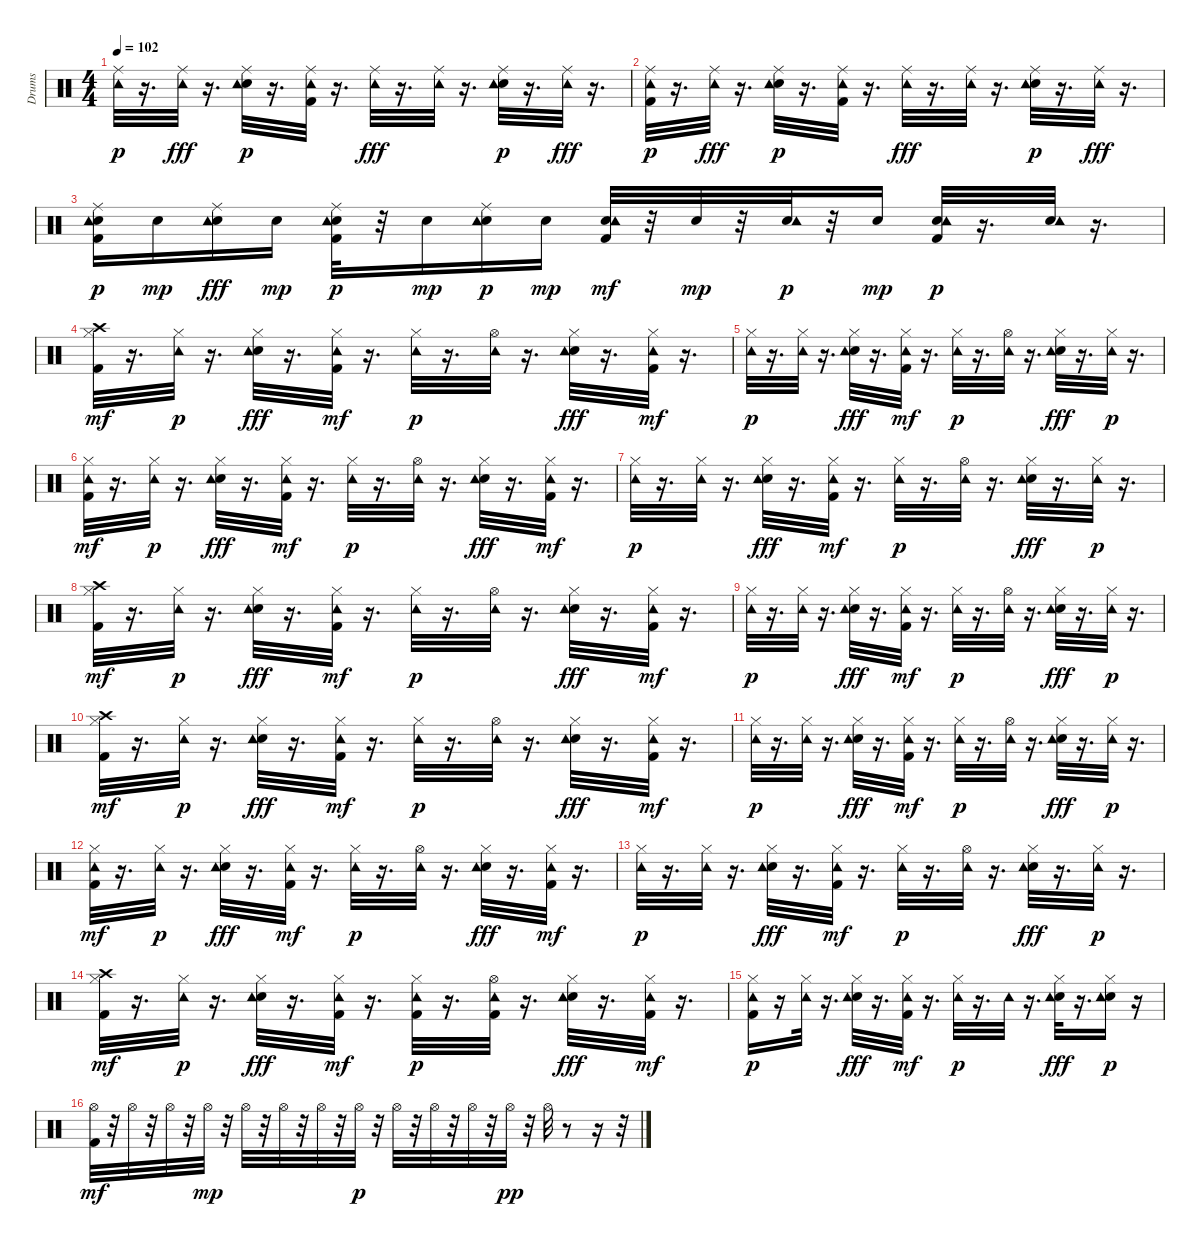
\track ("Drums" "Drums") {instrument percussion}
\staff {score}
\articulation defaults
\ts (4 4)
\tempo 102
\clef neutral
\ks c
("Ride (middle)" "Tambourine (hit)").32{dy p} r.16{d} ("Tambourine (hit)" "Ride (middle)").32{dy fff} r.16{d} ("Ride (middle)" "Electric Snare (hit)" "Tambourine (hit)").32{dy p} r.16{d} ("Kick (hit) 2" "Ride (middle)" "Tambourine (hit)").32 r.16{d} ("Tambourine (hit)" "Ride (middle)").32{dy fff} r.16{d} ("Tambourine (hit)" "Ride (middle)").32 r.16{d} ("Ride (middle)" "Electric Snare (hit)" "Tambourine (hit)").32{dy p} r.16{d} ("Tambourine (hit)" "Ride (middle)").32{dy fff} r.16{d} |
("Kick (hit) 2" "Ride (middle)" "Tambourine (hit)").32{dy p} r.16{d} ("Tambourine (hit)" "Ride (middle)").32{dy fff} r.16{d} ("Ride (middle)" "Electric Snare (hit)" "Tambourine (hit)").32{dy p} r.16{d} ("Kick (hit) 2" "Ride (middle)" "Tambourine (hit)").32 r.16{d} ("Tambourine (hit)" "Ride (middle)").32{dy fff} r.16{d} ("Tambourine (hit)" "Ride (middle)").32 r.16{d} ("Ride (middle)" "Electric Snare (hit)" "Tambourine (hit)").32{dy p} r.16{d} ("Tambourine (hit)" "Ride (middle)").32{dy fff} r.16{d} |
("Electric Snare (hit)" "Kick (hit) 2" "Ride (middle)" "Tambourine (hit)").16{dy p} "Electric Snare (hit)".16{dy mp} ("Electric Snare (hit)" "Tambourine (hit)" "Ride (middle)").16{dy fff} "Electric Snare (hit)".16{dy mp} ("Kick (hit) 2" "Ride (middle)" "Electric Snare (hit)" "Tambourine (hit)").32{dy p} r.32 "Electric Snare (hit)".16{dy mp} ("Electric Snare (hit)" "Ride (middle)" "Tambourine (hit)").16{dy p} "Electric Snare (hit)".16{dy mp} ("Electric Snare (hit)" "Tambourine (hit)" "Kick (hit) 2").32{dy mf} r.32 "Electric Snare (hit)".32{dy mp} r.32 ("Electric Snare (hit)" "Tambourine (hit)").32{dy p} r.32 "Electric Snare (hit)".16{dy mp} ("Electric Snare (hit)" "Kick (hit) 2" "Tambourine (hit)").32{dy p} r.16{d} ("Electric Snare (hit)" "Tambourine (hit)").32 r.16{d} |
("Hi-Hat (closed)" "Crash high (hit)" "Kick (hit) 2").32{dy mf} r.16{d} ("Hi-Hat (closed)" "Tambourine (hit)").32{dy p} r.16{d} ("Electric Snare (hit)" "Tambourine (hit)" "Hi-Hat (closed)").32{dy fff} r.16{d} ("Hi-Hat (closed)" "Tambourine (hit)" "Kick (hit) 2").32{dy mf} r.16{d} ("Hi-Hat (closed)" "Tambourine (hit)").32{dy p} r.16{d} ("Hi-Hat (open)" "Tambourine (hit)").32 r.16{d} ("Electric Snare (hit)" "Tambourine (hit)" "Hi-Hat (closed)").32{dy fff} r.16{d} ("Hi-Hat (closed)" "Tambourine (hit)" "Kick (hit) 2").32{dy mf} r.16{d} |
("Hi-Hat (closed)" "Tambourine (hit)").32{dy p} r.16{d} ("Hi-Hat (closed)" "Tambourine (hit)").32 r.16{d} ("Electric Snare (hit)" "Tambourine (hit)" "Hi-Hat (closed)").32{dy fff} r.16{d} ("Hi-Hat (closed)" "Tambourine (hit)" "Kick (hit) 2").32{dy mf} r.16{d} ("Hi-Hat (closed)" "Tambourine (hit)").32{dy p} r.16{d} ("Hi-Hat (open)" "Tambourine (hit)").32 r.16{d} ("Electric Snare (hit)" "Tambourine (hit)" "Hi-Hat (closed)").32{dy fff} r.16{d} ("Hi-Hat (closed)" "Tambourine (hit)").32{dy p} r.16{d} |
("Hi-Hat (closed)" "Tambourine (hit)" "Kick (hit) 2").32{dy mf} r.16{d} ("Hi-Hat (closed)" "Tambourine (hit)").32{dy p} r.16{d} ("Electric Snare (hit)" "Tambourine (hit)" "Hi-Hat (closed)").32{dy fff} r.16{d} ("Hi-Hat (closed)" "Tambourine (hit)" "Kick (hit) 2").32{dy mf} r.16{d} ("Hi-Hat (closed)" "Tambourine (hit)").32{dy p} r.16{d} ("Hi-Hat (open)" "Tambourine (hit)").32 r.16{d} ("Electric Snare (hit)" "Tambourine (hit)" "Hi-Hat (closed)").32{dy fff} r.16{d} ("Hi-Hat (closed)" "Tambourine (hit)" "Kick (hit) 2").32{dy mf} r.16{d} |
("Hi-Hat (closed)" "Tambourine (hit)").32{dy p} r.16{d} ("Hi-Hat (closed)" "Tambourine (hit)").32 r.16{d} ("Electric Snare (hit)" "Tambourine (hit)" "Hi-Hat (closed)").32{dy fff} r.16{d} ("Hi-Hat (closed)" "Tambourine (hit)" "Kick (hit) 2").32{dy mf} r.16{d} ("Hi-Hat (closed)" "Tambourine (hit)").32{dy p} r.16{d} ("Hi-Hat (open)" "Tambourine (hit)").32 r.16{d} ("Electric Snare (hit)" "Tambourine (hit)" "Hi-Hat (closed)").32{dy fff} r.16{d} ("Hi-Hat (closed)" "Tambourine (hit)").32{dy p} r.16{d} |
("Hi-Hat (closed)" "Crash high (hit)" "Kick (hit) 2").32{dy mf} r.16{d} ("Hi-Hat (closed)" "Tambourine (hit)").32{dy p} r.16{d} ("Electric Snare (hit)" "Tambourine (hit)" "Hi-Hat (closed)").32{dy fff} r.16{d} ("Hi-Hat (closed)" "Tambourine (hit)" "Kick (hit) 2").32{dy mf} r.16{d} ("Hi-Hat (closed)" "Tambourine (hit)").32{dy p} r.16{d} ("Hi-Hat (open)" "Tambourine (hit)").32 r.16{d} ("Electric Snare (hit)" "Tambourine (hit)" "Hi-Hat (closed)").32{dy fff} r.16{d} ("Hi-Hat (closed)" "Tambourine (hit)" "Kick (hit) 2").32{dy mf} r.16{d} |
("Hi-Hat (closed)" "Tambourine (hit)").32{dy p} r.16{d} ("Hi-Hat (closed)" "Tambourine (hit)").32 r.16{d} ("Electric Snare (hit)" "Tambourine (hit)" "Hi-Hat (closed)").32{dy fff} r.16{d} ("Hi-Hat (closed)" "Tambourine (hit)" "Kick (hit) 2").32{dy mf} r.16{d} ("Hi-Hat (closed)" "Tambourine (hit)").32{dy p} r.16{d} ("Hi-Hat (open)" "Tambourine (hit)").32 r.16{d} ("Electric Snare (hit)" "Tambourine (hit)" "Hi-Hat (closed)").32{dy fff} r.16{d} ("Hi-Hat (closed)" "Tambourine (hit)").32{dy p} r.16{d} |
("Hi-Hat (closed)" "Crash high (hit)" "Kick (hit) 2").32{dy mf} r.16{d} ("Hi-Hat (closed)" "Tambourine (hit)").32{dy p} r.16{d} ("Electric Snare (hit)" "Tambourine (hit)" "Hi-Hat (closed)").32{dy fff} r.16{d} ("Hi-Hat (closed)" "Tambourine (hit)" "Kick (hit) 2").32{dy mf} r.16{d} ("Hi-Hat (closed)" "Tambourine (hit)").32{dy p} r.16{d} ("Hi-Hat (open)" "Tambourine (hit)").32 r.16{d} ("Electric Snare (hit)" "Tambourine (hit)" "Hi-Hat (closed)").32{dy fff} r.16{d} ("Hi-Hat (closed)" "Tambourine (hit)" "Kick (hit) 2").32{dy mf} r.16{d} |
("Hi-Hat (closed)" "Tambourine (hit)").32{dy p} r.16{d} ("Hi-Hat (closed)" "Tambourine (hit)").32 r.16{d} ("Electric Snare (hit)" "Tambourine (hit)" "Hi-Hat (closed)").32{dy fff} r.16{d} ("Hi-Hat (closed)" "Tambourine (hit)" "Kick (hit) 2").32{dy mf} r.16{d} ("Hi-Hat (closed)" "Tambourine (hit)").32{dy p} r.16{d} ("Hi-Hat (open)" "Tambourine (hit)").32 r.16{d} ("Electric Snare (hit)" "Tambourine (hit)" "Hi-Hat (closed)").32{dy fff} r.16{d} ("Hi-Hat (closed)" "Tambourine (hit)").32{dy p} r.16{d} |
("Hi-Hat (closed)" "Tambourine (hit)" "Kick (hit) 2").32{dy mf} r.16{d} ("Hi-Hat (closed)" "Tambourine (hit)").32{dy p} r.16{d} ("Electric Snare (hit)" "Tambourine (hit)" "Hi-Hat (closed)").32{dy fff} r.16{d} ("Hi-Hat (closed)" "Tambourine (hit)" "Kick (hit) 2").32{dy mf} r.16{d} ("Hi-Hat (closed)" "Tambourine (hit)").32{dy p} r.16{d} ("Hi-Hat (open)" "Tambourine (hit)").32 r.16{d} ("Electric Snare (hit)" "Tambourine (hit)" "Hi-Hat (closed)").32{dy fff} r.16{d} ("Hi-Hat (closed)" "Tambourine (hit)" "Kick (hit) 2").32{dy mf} r.16{d} |
("Hi-Hat (closed)" "Tambourine (hit)").32{dy p} r.16{d} ("Hi-Hat (closed)" "Tambourine (hit)").32 r.16{d} ("Electric Snare (hit)" "Tambourine (hit)" "Hi-Hat (closed)").32{dy fff} r.16{d} ("Hi-Hat (closed)" "Tambourine (hit)" "Kick (hit) 2").32{dy mf} r.16{d} ("Hi-Hat (closed)" "Tambourine (hit)").32{dy p} r.16{d} ("Hi-Hat (open)" "Tambourine (hit)").32 r.16{d} ("Electric Snare (hit)" "Tambourine (hit)" "Hi-Hat (closed)").32{dy fff} r.16{d} ("Hi-Hat (closed)" "Tambourine (hit)").32{dy p} r.16{d} |
("Hi-Hat (closed)" "Crash high (hit)" "Kick (hit) 2").32{dy mf} r.16{d} ("Hi-Hat (closed)" "Tambourine (hit)").32{dy p} r.16{d} ("Electric Snare (hit)" "Tambourine (hit)" "Hi-Hat (closed)").32{dy fff} r.16{d} ("Hi-Hat (closed)" "Tambourine (hit)" "Kick (hit) 2").32{dy mf} r.16{d} ("Kick (hit) 2" "Hi-Hat (closed)" "Tambourine (hit)").32{dy p} r.16{d} ("Kick (hit) 2" "Hi-Hat (open)" "Tambourine (hit)").32 r.16{d} ("Electric Snare (hit)" "Tambourine (hit)" "Hi-Hat (closed)").32{dy fff} r.16{d} ("Hi-Hat (closed)" "Tambourine (hit)" "Kick (hit) 2").32{dy mf} r.16{d} |
("Kick (hit) 2" "Hi-Hat (closed)" "Tambourine (hit)").16{dy p} r.16 ("Hi-Hat (closed)" "Tambourine (hit)").32 r.16{d} ("Electric Snare (hit)" "Tambourine (hit)" "Hi-Hat (closed)").32{dy fff} r.16{d} ("Hi-Hat (closed)" "Tambourine (hit)" "Kick (hit) 2").32{dy mf} r.16{d} ("Hi-Hat (closed)" "Tambourine (hit)").32{dy p} r.16{d} "Tambourine (hit)".32 r.16{d} ("Electric Snare (hit)" "Tambourine (hit)" "Hi-Hat (closed)").32{dy fff} r.16{d} ("Electric Snare (hit)" "Hi-Hat (closed)" "Tambourine (hit)").16{dy p} r.16 |
("Kick (hit) 2" "Hi-Hat (open)").32{dy mf} r.32 "Hi-Hat (open)".32 r.32 "Hi-Hat (open)".32 r.32 "Hi-Hat (open)".32{dy mp} r.32 "Hi-Hat (open)".32 r.32 "Hi-Hat (open)".32 r.32 "Hi-Hat (open)".32 r.32 "Hi-Hat (open)".32{dy p} r.32 "Hi-Hat (open)".32 r.32 "Hi-Hat (open)".32 r.32 "Hi-Hat (open)".32 r.32 "Hi-Hat (open)".32{dy pp} r.32 "Hi-Hat (open)".32 r.8 r.16 r.32
